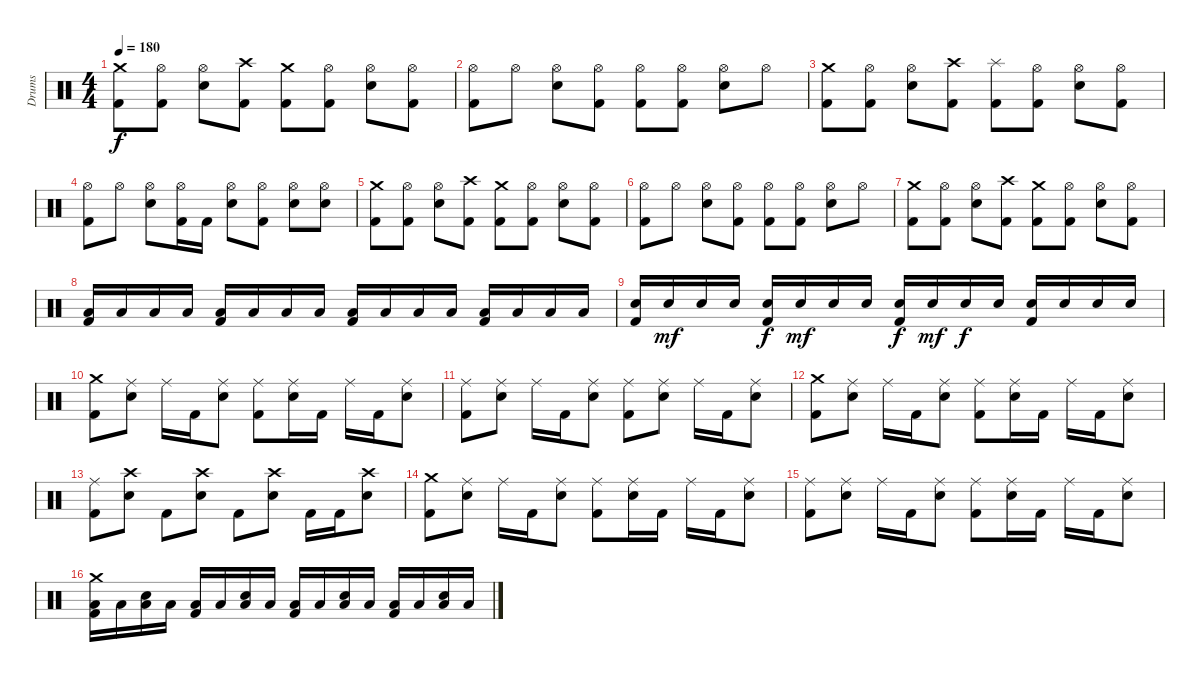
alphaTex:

\track ("Drums" "Drums") {instrument percussion}
\staff {score}
\articulation defaults
\ts (4 4)
\tempo 180
\clef neutral
\ks c
("Crash medium (hit)" "Kick (hit) 2").8{dy f} ("Hi-Hat (open)" "Kick (hit) 2").8 ("Hi-Hat (open)" "Electric Snare (hit)").8 ("Crash high (hit)" "Kick (hit) 2").8 ("Crash medium (hit)" "Kick (hit) 2").8 ("Hi-Hat (open)" "Kick (hit) 2").8 ("Hi-Hat (open)" "Electric Snare (hit)").8 ("Hi-Hat (open)" "Kick (hit) 2").8 |
("Hi-Hat (open)" "Kick (hit) 2").8 "Hi-Hat (open)".8 ("Hi-Hat (open)" "Electric Snare (hit)").8 ("Hi-Hat (open)" "Kick (hit) 2").8 ("Hi-Hat (open)" "Kick (hit) 2").8 ("Hi-Hat (open)" "Kick (hit) 2").8 ("Hi-Hat (open)" "Electric Snare (hit)").8 "Hi-Hat (open)".8 |
("Crash medium (hit)" "Kick (hit) 2").8 ("Hi-Hat (open)" "Kick (hit) 2").8 ("Hi-Hat (open)" "Electric Snare (hit)").8 ("Crash high (hit)" "Kick (hit) 2").8 ("Splash (hit)" "Kick (hit) 2").8 ("Hi-Hat (open)" "Kick (hit) 2").8 ("Hi-Hat (open)" "Electric Snare (hit)").8 ("Hi-Hat (open)" "Kick (hit) 2").8 |
("Hi-Hat (open)" "Kick (hit) 2").8 "Hi-Hat (open)".8 ("Hi-Hat (open)" "Electric Snare (hit)").8 ("Hi-Hat (open)" "Kick (hit) 2").16 "Kick (hit) 2".16 ("Hi-Hat (open)" "Electric Snare (hit)").8 ("Hi-Hat (open)" "Kick (hit) 2").8 ("Hi-Hat (open)" "Electric Snare (hit)").8 ("Hi-Hat (open)" "Electric Snare (hit)").8 |
("Crash medium (hit)" "Kick (hit) 2").8 ("Hi-Hat (open)" "Kick (hit) 2").8 ("Hi-Hat (open)" "Electric Snare (hit)").8 ("Crash high (hit)" "Kick (hit) 2").8 ("Crash medium (hit)" "Kick (hit) 2").8 ("Hi-Hat (open)" "Kick (hit) 2").8 ("Hi-Hat (open)" "Electric Snare (hit)").8 ("Hi-Hat (open)" "Kick (hit) 2").8 |
("Hi-Hat (open)" "Kick (hit) 2").8 "Hi-Hat (open)".8 ("Hi-Hat (open)" "Electric Snare (hit)").8 ("Hi-Hat (open)" "Kick (hit) 2").8 ("Hi-Hat (open)" "Kick (hit) 2").8 ("Hi-Hat (open)" "Kick (hit) 2").8 ("Hi-Hat (open)" "Electric Snare (hit)").8 "Hi-Hat (open)".8 |
("Crash medium (hit)" "Kick (hit) 2").8 ("Hi-Hat (open)" "Kick (hit) 2").8 ("Hi-Hat (open)" "Electric Snare (hit)").8 ("Crash high (hit)" "Kick (hit) 2").8 ("Crash medium (hit)" "Kick (hit) 2").8 ("Hi-Hat (open)" "Kick (hit) 2").8 ("Hi-Hat (open)" "Electric Snare (hit)").8 ("Hi-Hat (open)" "Kick (hit) 2").8 |
("Low Tom (hit)" "Kick (hit) 2").16 "Low Tom (hit)".16 "Low Tom (hit)".16 "Low Tom (hit)".16 ("Low Tom (hit)" "Kick (hit) 2").16 "Low Tom (hit)".16 "Low Tom (hit)".16 "Low Tom (hit)".16 ("Low Tom (hit)" "Kick (hit) 2").16 "Low Tom (hit)".16 "Low Tom (hit)".16 "Low Tom (hit)".16 ("Low Tom (hit)" "Kick (hit) 2").16 "Low Tom (hit)".16 "Low Tom (hit)".16 "Low Tom (hit)".16 |
("Electric Snare (hit)" "Kick (hit) 2").16 "Electric Snare (hit)".16{dy mf} "Electric Snare (hit)".16 "Electric Snare (hit)".16 ("Electric Snare (hit)" "Kick (hit) 2").16{dy f} "Electric Snare (hit)".16{dy mf} "Electric Snare (hit)".16 "Electric Snare (hit)".16 ("Electric Snare (hit)" "Kick (hit) 2").16{dy f} "Electric Snare (hit)".16{dy mf} "Electric Snare (hit)".16{dy f} "Electric Snare (hit)".16 ("Electric Snare (hit)" "Kick (hit) 2").16 "Electric Snare (hit)".16 "Electric Snare (hit)".16 "Electric Snare (hit)".16 |
("Crash medium (hit)" "Kick (hit) 2").8 ("Ride (middle)" "Electric Snare (hit)").8 "Ride (middle)".16 "Kick (hit) 2".16 ("Ride (middle)" "Electric Snare (hit)").8 ("Ride (middle)" "Kick (hit) 2").8 ("Ride (middle)" "Electric Snare (hit)").16 "Kick (hit) 2".16 "Ride (middle)".16 "Kick (hit) 2".16 ("Ride (middle)" "Electric Snare (hit)").8 |
("Ride (middle)" "Kick (hit) 2").8 ("Ride (middle)" "Electric Snare (hit)").8 "Ride (middle)".16 "Kick (hit) 2".16 ("Ride (middle)" "Electric Snare (hit)").8 ("Ride (middle)" "Kick (hit) 2").8 ("Ride (middle)" "Electric Snare (hit)").8 "Ride (middle)".16 "Kick (hit) 2".16 ("Ride (middle)" "Electric Snare (hit)").8 |
("Crash medium (hit)" "Kick (hit) 2").8 ("Ride (middle)" "Electric Snare (hit)").8 "Ride (middle)".16 "Kick (hit) 2".16 ("Ride (middle)" "Electric Snare (hit)").8 ("Ride (middle)" "Kick (hit) 2").8 ("Ride (middle)" "Electric Snare (hit)").16 "Kick (hit) 2".16 "Ride (middle)".16 "Kick (hit) 2".16 ("Ride (middle)" "Electric Snare (hit)").8 |
("Ride (middle)" "Kick (hit) 2").8 ("Crash high (hit)" "Electric Snare (hit)").8 "Kick (hit) 2".8 ("Crash high (hit)" "Electric Snare (hit)").8 "Kick (hit) 2".8 ("Crash high (hit)" "Electric Snare (hit)").8 "Kick (hit) 2".16 "Kick (hit) 2".16 ("Crash high (hit)" "Electric Snare (hit)").8 |
("Crash medium (hit)" "Kick (hit) 2").8 ("Ride (middle)" "Electric Snare (hit)").8 "Ride (middle)".16 "Kick (hit) 2".16 ("Ride (middle)" "Electric Snare (hit)").8 ("Ride (middle)" "Kick (hit) 2").8 ("Ride (middle)" "Electric Snare (hit)").16 "Kick (hit) 2".16 "Ride (middle)".16 "Kick (hit) 2".16 ("Ride (middle)" "Electric Snare (hit)").8 |
("Ride (middle)" "Kick (hit) 2").8 ("Ride (middle)" "Electric Snare (hit)").8 "Ride (middle)".16 "Kick (hit) 2".16 ("Ride (middle)" "Electric Snare (hit)").8 ("Ride (middle)" "Kick (hit) 2").8 ("Ride (middle)" "Electric Snare (hit)").16 "Kick (hit) 2".16 "Ride (middle)".16 "Kick (hit) 2".16 ("Ride (middle)" "Electric Snare (hit)").8 |
("Crash medium (hit)" "Low Tom (hit)" "Kick (hit) 2").16 "Low Tom (hit)".16 ("Electric Snare (hit)" "Low Tom (hit)").16 "Low Tom (hit)".16 ("Low Tom (hit)" "Kick (hit) 2").16 "Low Tom (hit)".16 ("Electric Snare (hit)" "Low Tom (hit)").16 "Low Tom (hit)".16 ("Low Tom (hit)" "Kick (hit) 2").16 "Low Tom (hit)".16 ("Electric Snare (hit)" "Low Tom (hit)").16 "Low Tom (hit)".16 ("Low Tom (hit)" "Kick (hit) 2").16 "Low Tom (hit)".16 ("Electric Snare (hit)" "Low Tom (hit)").16 "Low Tom (hit)".16
